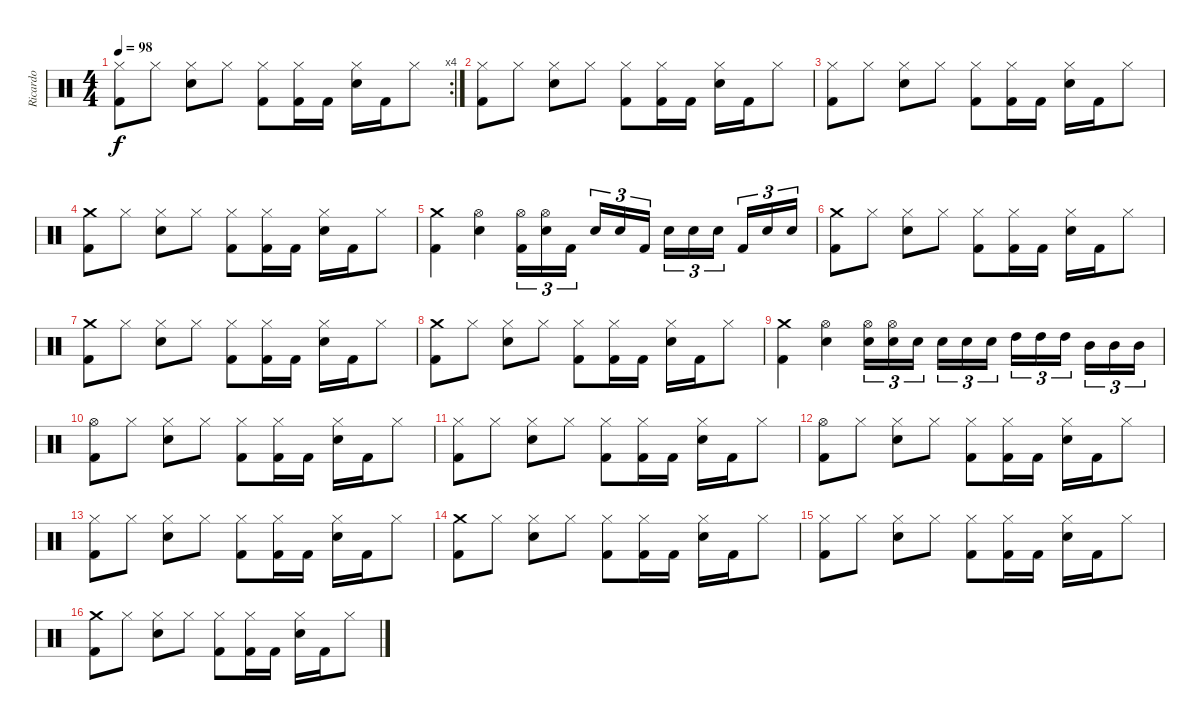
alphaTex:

\track ("Ricardo" "Ricardo") {instrument percussion}
\staff {score}
\articulation defaults
\rc 4
\ts (4 4)
\tempo 98
\clef neutral
\ks c
("Kick (hit) 2" "Hi-Hat (closed)").8{dy f} "Hi-Hat (closed)".8 ("Hi-Hat (closed)" "Snare (hit) 2").8 "Hi-Hat (closed)".8 ("Kick (hit) 2" "Hi-Hat (closed)").8 ("Kick (hit) 2" "Hi-Hat (closed)").16 "Kick (hit) 2".16 ("Hi-Hat (closed)" "Snare (hit) 2").16 "Kick (hit) 2".16 "Hi-Hat (closed)".8 |
("Kick (hit) 2" "Hi-Hat (closed)").8 "Hi-Hat (closed)".8 ("Hi-Hat (closed)" "Snare (hit) 2").8 "Hi-Hat (closed)".8 ("Kick (hit) 2" "Hi-Hat (closed)").8 ("Kick (hit) 2" "Hi-Hat (closed)").16 "Kick (hit) 2".16 ("Hi-Hat (closed)" "Snare (hit) 2").16 "Kick (hit) 2".16 "Hi-Hat (closed)".8 |
("Kick (hit) 2" "Hi-Hat (closed)").8 "Hi-Hat (closed)".8 ("Hi-Hat (closed)" "Snare (hit) 2").8 "Hi-Hat (closed)".8 ("Kick (hit) 2" "Hi-Hat (closed)").8 ("Kick (hit) 2" "Hi-Hat (closed)").16 "Kick (hit) 2".16 ("Hi-Hat (closed)" "Snare (hit) 2").16 "Kick (hit) 2".16 "Hi-Hat (closed)".8 |
("Kick (hit) 2" "Crash medium (hit)").8 "Hi-Hat (closed)".8 ("Hi-Hat (closed)" "Snare (hit) 2").8 "Hi-Hat (closed)".8 ("Kick (hit) 2" "Hi-Hat (closed)").8 ("Kick (hit) 2" "Hi-Hat (closed)").16 "Kick (hit) 2".16 ("Hi-Hat (closed)" "Snare (hit) 2").16 "Kick (hit) 2".16 "Hi-Hat (closed)".8 |
("Crash medium (hit)" "Kick (hit) 2").4 ("Hi-Hat (open)" "Snare (hit) 2").4 ("Hi-Hat (open)" "Kick (hit) 2").16{tu (3 2)} ("Hi-Hat (open)" "Snare (hit) 2").16{tu (3 2)} "Kick (hit) 2".16{tu (3 2)} "Snare (hit) 2".16{tu (3 2)} "Snare (hit) 2".16{tu (3 2)} "Kick (hit) 2".16{tu (3 2)} "Snare (hit) 2".16{tu (3 2)} "Snare (hit) 2".16{tu (3 2)} "Snare (hit) 2".16{tu (3 2)} "Kick (hit) 2".16{tu (3 2)} "Snare (hit) 2".16{tu (3 2)} "Snare (hit) 2".16{tu (3 2)} |
("Kick (hit) 2" "Crash medium (hit)").8 "Hi-Hat (closed)".8 ("Hi-Hat (closed)" "Snare (hit) 2").8 "Hi-Hat (closed)".8 ("Kick (hit) 2" "Hi-Hat (closed)").8 ("Kick (hit) 2" "Hi-Hat (closed)").16 "Kick (hit) 2".16 ("Hi-Hat (closed)" "Snare (hit) 2").16 "Kick (hit) 2".16 "Hi-Hat (closed)".8 |
("Kick (hit) 2" "Crash medium (hit)").8 "Hi-Hat (closed)".8 ("Hi-Hat (closed)" "Snare (hit) 2").8 "Hi-Hat (closed)".8 ("Kick (hit) 2" "Hi-Hat (closed)").8 ("Kick (hit) 2" "Hi-Hat (closed)").16 "Kick (hit) 2".16 ("Hi-Hat (closed)" "Snare (hit) 2").16 "Kick (hit) 2".16 "Hi-Hat (closed)".8 |
("Kick (hit) 2" "Crash medium (hit)").8 "Hi-Hat (closed)".8 ("Hi-Hat (closed)" "Snare (hit) 2").8 "Hi-Hat (closed)".8 ("Kick (hit) 2" "Hi-Hat (closed)").8 ("Kick (hit) 2" "Hi-Hat (closed)").16 "Kick (hit) 2".16 ("Hi-Hat (closed)" "Snare (hit) 2").16 "Kick (hit) 2".16 "Hi-Hat (closed)".8 |
("Crash medium (hit)" "Kick (hit) 2").4 ("Hi-Hat (open)" "Snare (hit) 2").4 ("Hi-Hat (open)" "Snare (hit) 2").16{tu (3 2)} ("Hi-Hat (open)" "Snare (hit) 2").16{tu (3 2)} "Snare (hit) 2".16{tu (3 2)} "Snare (hit) 2".16{tu (3 2)} "Snare (hit) 2".16{tu (3 2)} "Snare (hit) 2".16{tu (3 2)} "High Tom (hit)".16{tu (3 2)} "High Tom (hit)".16{tu (3 2)} "High Tom (hit)".16{tu (3 2)} "Mid Tom (hit)".16{tu (3 2)} "Mid Tom (hit)".16{tu (3 2)} "Mid Tom (hit)".16{tu (3 2)} |
("Kick (hit) 2" "Hi-Hat (open)").8 "Hi-Hat (closed)".8 ("Hi-Hat (closed)" "Snare (hit) 2").8 "Hi-Hat (closed)".8 ("Kick (hit) 2" "Hi-Hat (closed)").8 ("Kick (hit) 2" "Hi-Hat (closed)").16 "Kick (hit) 2".16 ("Hi-Hat (closed)" "Snare (hit) 2").16 "Kick (hit) 2".16 "Hi-Hat (closed)".8 |
("Kick (hit) 2" "Hi-Hat (closed)").8 "Hi-Hat (closed)".8 ("Hi-Hat (closed)" "Snare (hit) 2").8 "Hi-Hat (closed)".8 ("Kick (hit) 2" "Hi-Hat (closed)").8 ("Kick (hit) 2" "Hi-Hat (closed)").16 "Kick (hit) 2".16 ("Hi-Hat (closed)" "Snare (hit) 2").16 "Kick (hit) 2".16 "Hi-Hat (closed)".8 |
("Kick (hit) 2" "Hi-Hat (open)").8 "Hi-Hat (closed)".8 ("Hi-Hat (closed)" "Snare (hit) 2").8 "Hi-Hat (closed)".8 ("Kick (hit) 2" "Hi-Hat (closed)").8 ("Kick (hit) 2" "Hi-Hat (closed)").16 "Kick (hit) 2".16 ("Hi-Hat (closed)" "Snare (hit) 2").16 "Kick (hit) 2".16 "Hi-Hat (closed)".8 |
("Kick (hit) 2" "Hi-Hat (closed)").8 "Hi-Hat (closed)".8 ("Hi-Hat (closed)" "Snare (hit) 2").8 "Hi-Hat (closed)".8 ("Kick (hit) 2" "Hi-Hat (closed)").8 ("Kick (hit) 2" "Hi-Hat (closed)").16 "Kick (hit) 2".16 ("Hi-Hat (closed)" "Snare (hit) 2").16 "Kick (hit) 2".16 "Hi-Hat (closed)".8 |
("Kick (hit) 2" "Crash medium (hit)").8 "Hi-Hat (closed)".8 ("Hi-Hat (closed)" "Snare (hit) 2").8 "Hi-Hat (closed)".8 ("Kick (hit) 2" "Hi-Hat (closed)").8 ("Kick (hit) 2" "Hi-Hat (closed)").16 "Kick (hit) 2".16 ("Hi-Hat (closed)" "Snare (hit) 2").16 "Kick (hit) 2".16 "Hi-Hat (closed)".8 |
("Kick (hit) 2" "Hi-Hat (closed)").8 "Hi-Hat (closed)".8 ("Hi-Hat (closed)" "Snare (hit) 2").8 "Hi-Hat (closed)".8 ("Kick (hit) 2" "Hi-Hat (closed)").8 ("Kick (hit) 2" "Hi-Hat (closed)").16 "Kick (hit) 2".16 ("Hi-Hat (closed)" "Snare (hit) 2").16 "Kick (hit) 2".16 "Hi-Hat (closed)".8 |
("Kick (hit) 2" "Crash medium (hit)").8 "Hi-Hat (closed)".8 ("Hi-Hat (closed)" "Snare (hit) 2").8 "Hi-Hat (closed)".8 ("Kick (hit) 2" "Hi-Hat (closed)").8 ("Kick (hit) 2" "Hi-Hat (closed)").16 "Kick (hit) 2".16 ("Hi-Hat (closed)" "Snare (hit) 2").16 "Kick (hit) 2".16 "Hi-Hat (closed)".8
